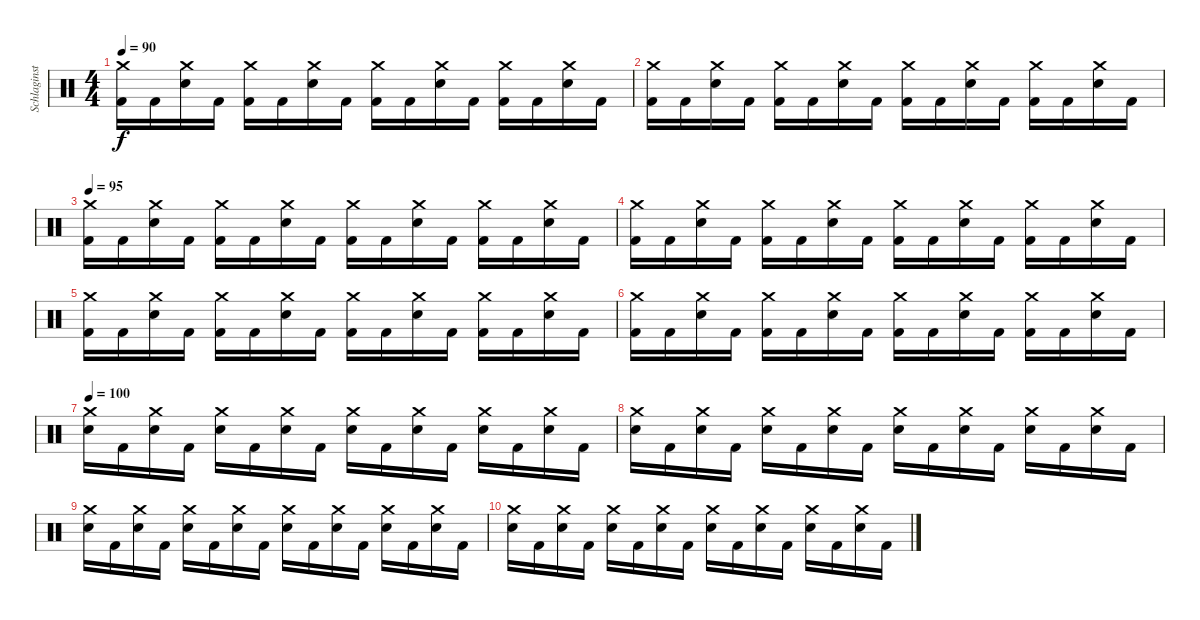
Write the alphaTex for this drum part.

\track ("Schlaginstrumente - Auswahl" "Schlaginst") {instrument percussion}
\staff {score}
\articulation defaults
\ts (4 4)
\tempo 90
\clef neutral
\ks c
("Crash medium (hit)" "Kick (hit) 2").16{dy f} "Kick (hit) 2".16 ("Crash medium (hit)" "Snare (hit) 2").16 "Kick (hit) 2".16 ("Crash medium (hit)" "Kick (hit) 2").16 "Kick (hit) 2".16 ("Crash medium (hit)" "Snare (hit) 2").16 "Kick (hit) 2".16 ("Crash medium (hit)" "Kick (hit) 2").16 "Kick (hit) 2".16 ("Crash medium (hit)" "Snare (hit) 2").16 "Kick (hit) 2".16 ("Crash medium (hit)" "Kick (hit) 2").16 "Kick (hit) 2".16 ("Crash medium (hit)" "Snare (hit) 2").16 "Kick (hit) 2".16 |
("Crash medium (hit)" "Kick (hit) 2").16 "Kick (hit) 2".16 ("Crash medium (hit)" "Snare (hit) 2").16 "Kick (hit) 2".16 ("Crash medium (hit)" "Kick (hit) 2").16 "Kick (hit) 2".16 ("Crash medium (hit)" "Snare (hit) 2").16 "Kick (hit) 2".16 ("Crash medium (hit)" "Kick (hit) 2").16 "Kick (hit) 2".16 ("Crash medium (hit)" "Snare (hit) 2").16 "Kick (hit) 2".16 ("Crash medium (hit)" "Kick (hit) 2").16 "Kick (hit) 2".16 ("Crash medium (hit)" "Snare (hit) 2").16 "Kick (hit) 2".16 |
\tempo 95
("Crash medium (hit)" "Kick (hit) 2").16 "Kick (hit) 2".16 ("Crash medium (hit)" "Snare (hit) 2").16 "Kick (hit) 2".16 ("Crash medium (hit)" "Kick (hit) 2").16 "Kick (hit) 2".16 ("Crash medium (hit)" "Snare (hit) 2").16 "Kick (hit) 2".16 ("Crash medium (hit)" "Kick (hit) 2").16 "Kick (hit) 2".16 ("Crash medium (hit)" "Snare (hit) 2").16 "Kick (hit) 2".16 ("Crash medium (hit)" "Kick (hit) 2").16 "Kick (hit) 2".16 ("Crash medium (hit)" "Snare (hit) 2").16 "Kick (hit) 2".16 |
("Crash medium (hit)" "Kick (hit) 2").16 "Kick (hit) 2".16 ("Crash medium (hit)" "Snare (hit) 2").16 "Kick (hit) 2".16 ("Crash medium (hit)" "Kick (hit) 2").16 "Kick (hit) 2".16 ("Crash medium (hit)" "Snare (hit) 2").16 "Kick (hit) 2".16 ("Crash medium (hit)" "Kick (hit) 2").16 "Kick (hit) 2".16 ("Crash medium (hit)" "Snare (hit) 2").16 "Kick (hit) 2".16 ("Crash medium (hit)" "Kick (hit) 2").16 "Kick (hit) 2".16 ("Crash medium (hit)" "Snare (hit) 2").16 "Kick (hit) 2".16 |
("Crash medium (hit)" "Kick (hit) 2").16 "Kick (hit) 2".16 ("Crash medium (hit)" "Snare (hit) 2").16 "Kick (hit) 2".16 ("Crash medium (hit)" "Kick (hit) 2").16 "Kick (hit) 2".16 ("Crash medium (hit)" "Snare (hit) 2").16 "Kick (hit) 2".16 ("Crash medium (hit)" "Kick (hit) 2").16 "Kick (hit) 2".16 ("Crash medium (hit)" "Snare (hit) 2").16 "Kick (hit) 2".16 ("Crash medium (hit)" "Kick (hit) 2").16 "Kick (hit) 2".16 ("Crash medium (hit)" "Snare (hit) 2").16 "Kick (hit) 2".16 |
("Crash medium (hit)" "Kick (hit) 2").16 "Kick (hit) 2".16 ("Crash medium (hit)" "Snare (hit) 2").16 "Kick (hit) 2".16 ("Crash medium (hit)" "Kick (hit) 2").16 "Kick (hit) 2".16 ("Crash medium (hit)" "Snare (hit) 2").16 "Kick (hit) 2".16 ("Crash medium (hit)" "Kick (hit) 2").16 "Kick (hit) 2".16 ("Crash medium (hit)" "Snare (hit) 2").16 "Kick (hit) 2".16 ("Crash medium (hit)" "Kick (hit) 2").16 "Kick (hit) 2".16 ("Crash medium (hit)" "Snare (hit) 2").16 "Kick (hit) 2".16 |
\tempo 100
("Crash medium (hit)" "Snare (hit) 2").16 "Kick (hit) 2".16 ("Crash medium (hit)" "Snare (hit) 2").16 "Kick (hit) 2".16 ("Crash medium (hit)" "Snare (hit) 2").16 "Kick (hit) 2".16 ("Crash medium (hit)" "Snare (hit) 2").16 "Kick (hit) 2".16 ("Crash medium (hit)" "Snare (hit) 2").16 "Kick (hit) 2".16 ("Crash medium (hit)" "Snare (hit) 2").16 "Kick (hit) 2".16 ("Crash medium (hit)" "Snare (hit) 2").16 "Kick (hit) 2".16 ("Crash medium (hit)" "Snare (hit) 2").16 "Kick (hit) 2".16 |
("Crash medium (hit)" "Snare (hit) 2").16 "Kick (hit) 2".16 ("Crash medium (hit)" "Snare (hit) 2").16 "Kick (hit) 2".16 ("Crash medium (hit)" "Snare (hit) 2").16 "Kick (hit) 2".16 ("Crash medium (hit)" "Snare (hit) 2").16 "Kick (hit) 2".16 ("Crash medium (hit)" "Snare (hit) 2").16 "Kick (hit) 2".16 ("Crash medium (hit)" "Snare (hit) 2").16 "Kick (hit) 2".16 ("Crash medium (hit)" "Snare (hit) 2").16 "Kick (hit) 2".16 ("Crash medium (hit)" "Snare (hit) 2").16 "Kick (hit) 2".16 |
("Crash medium (hit)" "Snare (hit) 2").16 "Kick (hit) 2".16 ("Crash medium (hit)" "Snare (hit) 2").16 "Kick (hit) 2".16 ("Crash medium (hit)" "Snare (hit) 2").16 "Kick (hit) 2".16 ("Crash medium (hit)" "Snare (hit) 2").16 "Kick (hit) 2".16 ("Crash medium (hit)" "Snare (hit) 2").16 "Kick (hit) 2".16 ("Crash medium (hit)" "Snare (hit) 2").16 "Kick (hit) 2".16 ("Crash medium (hit)" "Snare (hit) 2").16 "Kick (hit) 2".16 ("Crash medium (hit)" "Snare (hit) 2").16 "Kick (hit) 2".16 |
("Crash medium (hit)" "Snare (hit) 2").16 "Kick (hit) 2".16 ("Crash medium (hit)" "Snare (hit) 2").16 "Kick (hit) 2".16 ("Crash medium (hit)" "Snare (hit) 2").16 "Kick (hit) 2".16 ("Crash medium (hit)" "Snare (hit) 2").16 "Kick (hit) 2".16 ("Crash medium (hit)" "Snare (hit) 2").16 "Kick (hit) 2".16 ("Crash medium (hit)" "Snare (hit) 2").16 "Kick (hit) 2".16 ("Crash medium (hit)" "Snare (hit) 2").16 "Kick (hit) 2".16 ("Crash medium (hit)" "Snare (hit) 2").16 "Kick (hit) 2".16
